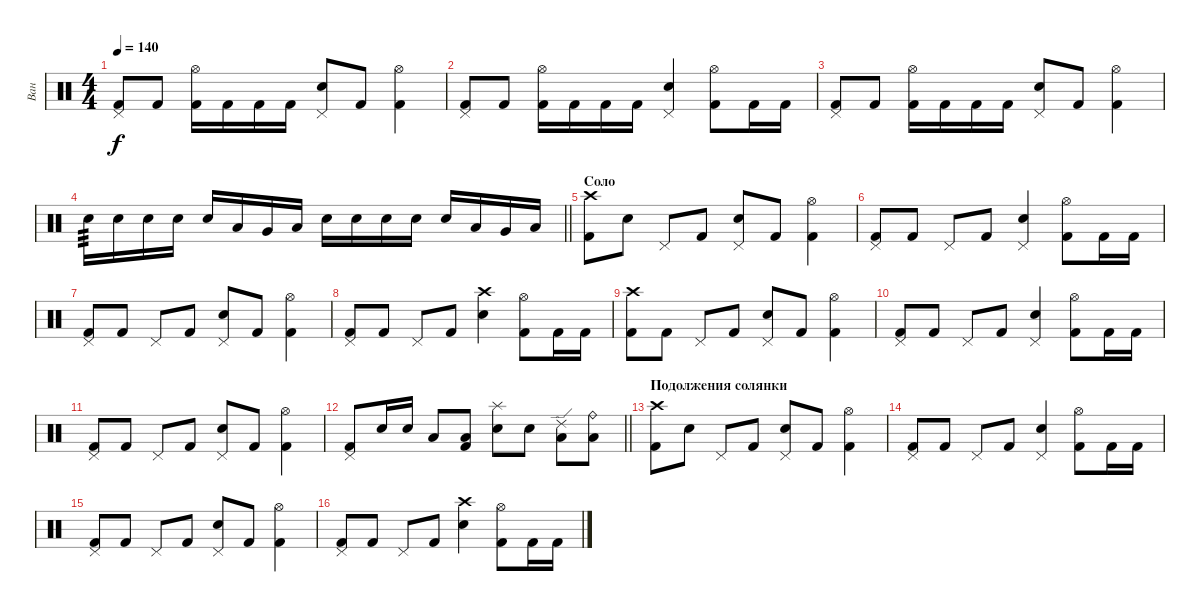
\track ("Ван" "Ван") {instrument percussion}
\staff {score}
\articulation defaults
\ts (4 4)
\tempo 140
\clef neutral
\ks c
("Pedal Hi-Hat (hit)" "Kick (hit) 2").8{dy f} "Kick (hit) 2".8 ("Hi-Hat (open)" "Kick (hit) 2").16 "Kick (hit) 2".16 "Kick (hit) 2".16 "Kick (hit) 2".16 ("Pedal Hi-Hat (hit)" "Snare (hit) 2").8 "Kick (hit) 2".8 ("Hi-Hat (open)" "Kick (hit) 2").4 |
("Pedal Hi-Hat (hit)" "Kick (hit) 2").8 "Kick (hit) 2".8 ("Hi-Hat (open)" "Kick (hit) 2").16 "Kick (hit) 2".16 "Kick (hit) 2".16 "Kick (hit) 2".16 ("Pedal Hi-Hat (hit)" "Snare (hit) 2").4 ("Hi-Hat (open)" "Kick (hit) 2").8 "Kick (hit) 2".16 "Kick (hit) 2".16 |
("Pedal Hi-Hat (hit)" "Kick (hit) 2").8 "Kick (hit) 2".8 ("Hi-Hat (open)" "Kick (hit) 2").16 "Kick (hit) 2".16 "Kick (hit) 2".16 "Kick (hit) 2".16 ("Pedal Hi-Hat (hit)" "Snare (hit) 2").8 "Kick (hit) 2".8 ("Hi-Hat (open)" "Kick (hit) 2").4 |
\barLineRight lightlight "Snare (hit) 2".16{tp 3} "Snare (hit) 2".16 "Snare (hit) 2".16 "Snare (hit) 2".16 "Snare (hit) 2".16 "Low Floor Tom (hit)".16 "Very Low Tom (hit)".16 "Low Tom (hit)".16 "Snare (hit) 2".16 "Snare (hit) 2".16 "Snare (hit) 2".16 "Snare (hit) 2".16 "Snare (hit) 2".16 "Low Floor Tom (hit)".16 "Very Low Tom (hit)".16 "Low Tom (hit)".16
|
\section ("" "Соло")
("Crash high (hit)" "Kick (hit) 2").8 "Snare (hit) 2".8 "Pedal Hi-Hat (hit)".8 "Kick (hit) 2".8 ("Pedal Hi-Hat (hit)" "Snare (hit) 2").8 "Kick (hit) 2".8 ("Hi-Hat (open)" "Kick (hit) 2").4 |
("Pedal Hi-Hat (hit)" "Kick (hit) 2").8 "Kick (hit) 2".8 "Pedal Hi-Hat (hit)".8 "Kick (hit) 2".8 ("Pedal Hi-Hat (hit)" "Snare (hit) 2").4 ("Hi-Hat (open)" "Kick (hit) 2").8 "Kick (hit) 2".16 "Kick (hit) 2".16 |
("Pedal Hi-Hat (hit)" "Kick (hit) 2").8 "Kick (hit) 2".8 "Pedal Hi-Hat (hit)".8 "Kick (hit) 2".8 ("Pedal Hi-Hat (hit)" "Snare (hit) 2").8 "Kick (hit) 2".8 ("Hi-Hat (open)" "Kick (hit) 2").4 |
("Pedal Hi-Hat (hit)" "Kick (hit) 2").8 "Kick (hit) 2".8 "Pedal Hi-Hat (hit)".8 "Kick (hit) 2".8 ("Crash high (hit)" "Snare (hit) 2").4 ("Hi-Hat (open)" "Kick (hit) 2").8 "Kick (hit) 2".16 "Kick (hit) 2".16 |
("Crash high (hit)" "Kick (hit) 2").8 "Kick (hit) 2".8 "Pedal Hi-Hat (hit)".8 "Kick (hit) 2".8 ("Pedal Hi-Hat (hit)" "Snare (hit) 2").8 "Kick (hit) 2".8 ("Hi-Hat (open)" "Kick (hit) 2").4 |
("Pedal Hi-Hat (hit)" "Kick (hit) 2").8 "Kick (hit) 2".8 "Pedal Hi-Hat (hit)".8 "Kick (hit) 2".8 ("Pedal Hi-Hat (hit)" "Snare (hit) 2").4 ("Hi-Hat (open)" "Kick (hit) 2").8 "Kick (hit) 2".16 "Kick (hit) 2".16 |
("Pedal Hi-Hat (hit)" "Kick (hit) 2").8 "Kick (hit) 2".8 "Pedal Hi-Hat (hit)".8 "Kick (hit) 2".8 ("Pedal Hi-Hat (hit)" "Snare (hit) 2").8 "Kick (hit) 2".8 ("Hi-Hat (open)" "Kick (hit) 2").4 |
\barLineRight lightlight
("Pedal Hi-Hat (hit)" "Kick (hit) 2").8 "Snare (hit) 2".16 "Snare (hit) 2".16 "Low Floor Tom (hit)".8 ("Low Floor Tom (hit)" "Kick (hit) 2").8 ("Splash (hit)" "Snare (hit) 2").8 "Snare (hit) 2".8 ("Ride (edge) 2" "Low Floor Tom (hit)").8 ("Ride (bell)" "Low Tom (hit)").8 |
\section ("" "Подолжения солянки")
("Crash high (hit)" "Kick (hit) 2").8 "Snare (hit) 2".8 "Pedal Hi-Hat (hit)".8 "Kick (hit) 2".8 ("Pedal Hi-Hat (hit)" "Snare (hit) 2").8 "Kick (hit) 2".8 ("Hi-Hat (open)" "Kick (hit) 2").4 |
("Pedal Hi-Hat (hit)" "Kick (hit) 2").8 "Kick (hit) 2".8 "Pedal Hi-Hat (hit)".8 "Kick (hit) 2".8 ("Pedal Hi-Hat (hit)" "Snare (hit) 2").4 ("Hi-Hat (open)" "Kick (hit) 2").8 "Kick (hit) 2".16 "Kick (hit) 2".16 |
("Pedal Hi-Hat (hit)" "Kick (hit) 2").8 "Kick (hit) 2".8 "Pedal Hi-Hat (hit)".8 "Kick (hit) 2".8 ("Pedal Hi-Hat (hit)" "Snare (hit) 2").8 "Kick (hit) 2".8 ("Hi-Hat (open)" "Kick (hit) 2").4 |
("Pedal Hi-Hat (hit)" "Kick (hit) 2").8 "Kick (hit) 2".8 "Pedal Hi-Hat (hit)".8 "Kick (hit) 2".8 ("Crash high (hit)" "Snare (hit) 2").4 ("Hi-Hat (open)" "Kick (hit) 2").8 "Kick (hit) 2".16 "Kick (hit) 2".16
